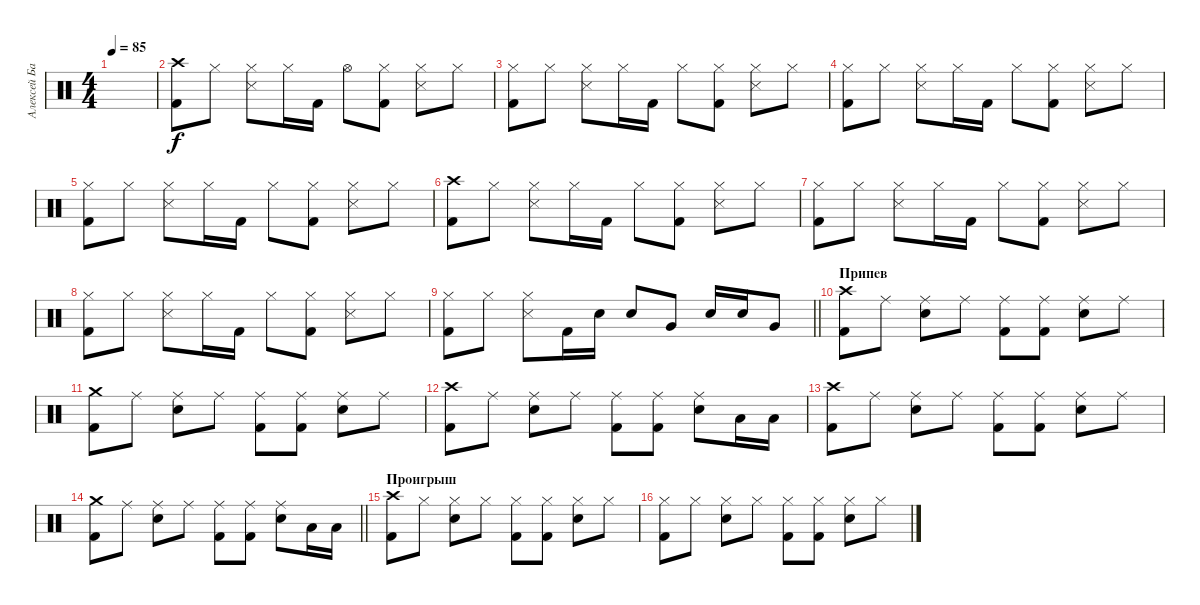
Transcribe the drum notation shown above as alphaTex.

\track ("Алексей Барзилович" "Алексей Ба") {instrument percussion}
\staff {score}
\articulation defaults
\ts (4 4)
\tempo 85
\clef neutral
\ks c
|
("Crash high (hit)" "Kick (hit) 2").8 "Hi-Hat (closed)".8 ("Hi-Hat (closed)" "Snare (side stick) 3").8 "Hi-Hat (closed)".16 "Kick (hit) 2".16 "Hi-Hat (open)".8 ("Hi-Hat (closed)" "Kick (hit) 2").8 ("Hi-Hat (closed)" "Snare (side stick) 3").8 "Hi-Hat (closed)".8 |
("Hi-Hat (closed)" "Kick (hit) 2").8 "Hi-Hat (closed)".8 ("Hi-Hat (closed)" "Snare (side stick) 3").8 "Hi-Hat (closed)".16 "Kick (hit) 2".16 "Hi-Hat (closed)".8 ("Hi-Hat (closed)" "Kick (hit) 2").8 ("Hi-Hat (closed)" "Snare (side stick) 3").8 "Hi-Hat (closed)".8 |
("Hi-Hat (closed)" "Kick (hit) 2").8 "Hi-Hat (closed)".8 ("Hi-Hat (closed)" "Snare (side stick) 3").8 "Hi-Hat (closed)".16 "Kick (hit) 2".16 "Hi-Hat (closed)".8 ("Hi-Hat (closed)" "Kick (hit) 2").8 ("Hi-Hat (closed)" "Snare (side stick) 3").8 "Hi-Hat (closed)".8 |
("Hi-Hat (closed)" "Kick (hit) 2").8 "Hi-Hat (closed)".8 ("Hi-Hat (closed)" "Snare (side stick) 3").8 "Hi-Hat (closed)".16 "Kick (hit) 2".16 "Hi-Hat (closed)".8 ("Hi-Hat (closed)" "Kick (hit) 2").8 ("Hi-Hat (closed)" "Snare (side stick) 3").8 "Hi-Hat (closed)".8 |
("Crash high (hit)" "Kick (hit) 2").8 "Hi-Hat (closed)".8 ("Hi-Hat (closed)" "Snare (side stick) 3").8 "Hi-Hat (closed)".16 "Kick (hit) 2".16 "Hi-Hat (closed)".8 ("Hi-Hat (closed)" "Kick (hit) 2").8 ("Hi-Hat (closed)" "Snare (side stick) 3").8 "Hi-Hat (closed)".8 |
("Hi-Hat (closed)" "Kick (hit) 2").8 "Hi-Hat (closed)".8 ("Hi-Hat (closed)" "Snare (side stick) 3").8 "Hi-Hat (closed)".16 "Kick (hit) 2".16 "Hi-Hat (closed)".8 ("Hi-Hat (closed)" "Kick (hit) 2").8 ("Hi-Hat (closed)" "Snare (side stick) 3").8 "Hi-Hat (closed)".8 |
("Hi-Hat (closed)" "Kick (hit) 2").8 "Hi-Hat (closed)".8 ("Hi-Hat (closed)" "Snare (side stick) 3").8 "Hi-Hat (closed)".16 "Kick (hit) 2".16 "Hi-Hat (closed)".8 ("Hi-Hat (closed)" "Kick (hit) 2").8 ("Hi-Hat (closed)" "Snare (side stick) 3").8 "Hi-Hat (closed)".8 |
\barLineRight lightlight
("Hi-Hat (closed)" "Kick (hit) 2").8 "Hi-Hat (closed)".8 ("Hi-Hat (closed)" "Snare (side stick) 3").8 "Kick (hit) 2".16 "Electric Snare (hit)".16 "Electric Snare (hit)".8 "Very Low Tom (hit)".8 "Electric Snare (hit)".16 "Electric Snare (hit)".16 "Very Low Tom (hit)".8 |
\section ("" "Припев")
("Crash high (hit)" "Kick (hit) 2").8 "Ride (middle)".8 ("Ride (middle)" "Electric Snare (hit)").8 "Ride (middle)".8 ("Ride (middle)" "Kick (hit) 2").8 ("Ride (middle)" "Kick (hit) 2").8 ("Ride (middle)" "Electric Snare (hit)").8 "Ride (middle)".8 |
("Crash medium (hit)" "Kick (hit) 2").8 "Ride (middle)".8 ("Ride (middle)" "Electric Snare (hit)").8 "Ride (middle)".8 ("Ride (middle)" "Kick (hit) 2").8 ("Ride (middle)" "Kick (hit) 2").8 ("Ride (middle)" "Electric Snare (hit)").8 "Ride (middle)".8 |
("Crash high (hit)" "Kick (hit) 2").8 "Ride (middle)".8 ("Ride (middle)" "Electric Snare (hit)").8 "Ride (middle)".8 ("Ride (middle)" "Kick (hit) 2").8 ("Ride (middle)" "Kick (hit) 2").8 ("Ride (middle)" "Electric Snare (hit)").8 "Low Tom (hit)".16 "Low Tom (hit)".16 |
("Crash high (hit)" "Kick (hit) 2").8 "Ride (middle)".8 ("Ride (middle)" "Electric Snare (hit)").8 "Ride (middle)".8 ("Ride (middle)" "Kick (hit) 2").8 ("Ride (middle)" "Kick (hit) 2").8 ("Ride (middle)" "Electric Snare (hit)").8 "Ride (middle)".8 |
\barLineRight lightlight
("Crash medium (hit)" "Kick (hit) 2").8 "Ride (middle)".8 ("Ride (middle)" "Electric Snare (hit)").8 "Ride (middle)".8 ("Ride (middle)" "Kick (hit) 2").8 ("Ride (middle)" "Kick (hit) 2").8 ("Ride (middle)" "Electric Snare (hit)").8 "Low Tom (hit)".16 "Low Tom (hit)".16 |
\section ("" "Проигрыш")
("Crash high (hit)" "Kick (hit) 2").8 "Hi-Hat (closed)".8 ("Hi-Hat (closed)" "Electric Snare (hit)").8 "Hi-Hat (closed)".8 ("Hi-Hat (closed)" "Kick (hit) 2").8 ("Hi-Hat (closed)" "Kick (hit) 2").8 ("Hi-Hat (closed)" "Electric Snare (hit)").8 "Hi-Hat (closed)".8 |
("Hi-Hat (closed)" "Kick (hit) 2").8 "Hi-Hat (closed)".8 ("Hi-Hat (closed)" "Electric Snare (hit)").8 "Hi-Hat (closed)".8 ("Hi-Hat (closed)" "Kick (hit) 2").8 ("Hi-Hat (closed)" "Kick (hit) 2").8 ("Hi-Hat (closed)" "Electric Snare (hit)").8 "Hi-Hat (closed)".8
